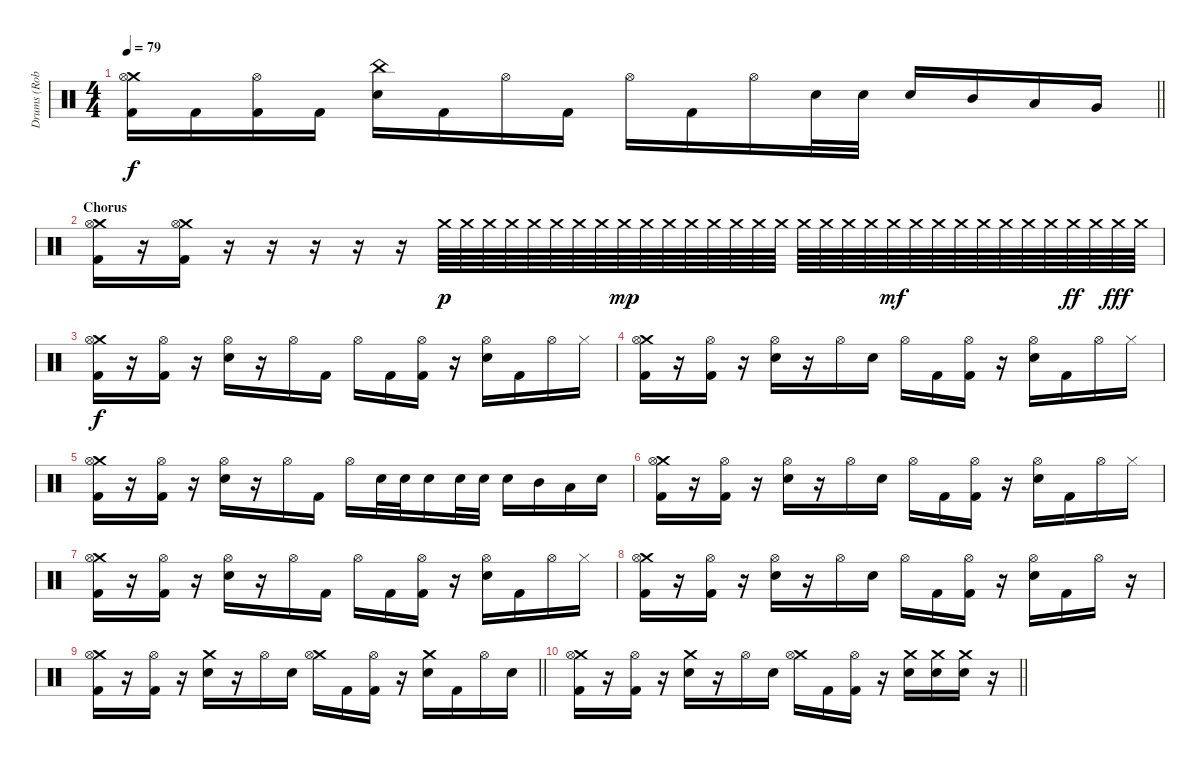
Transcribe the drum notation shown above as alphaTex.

\track ("Drums (Rob Bourdon)" "Drums (Rob") {instrument percussion}
\staff {score}
\articulation defaults
\ts (4 4)
\tempo 79
\clef neutral
\barLineRight lightlight
\ks c
("Crash medium (hit)" "Hi-Hat (open)" "Kick (hit) 2").16{dy f} "Kick (hit) 2".16 ("Hi-Hat (open)" "Kick (hit) 2").16 "Kick (hit) 2".16 ("China (hit)" "Electric Snare (hit)").16 "Kick (hit) 2".16 "Hi-Hat (open)".16 "Kick (hit) 2".16 "Hi-Hat (open)".16 "Kick (hit) 2".16 "Hi-Hat (open)".16 "Electric Snare (hit)".32 "Electric Snare (hit)".32 "Electric Snare (hit)".16 "Mid Tom (hit)".16 "Low Tom (hit)".16 "Very Low Tom (hit)".16 |
\section ("" "Chorus")
("Crash medium (hit)" "Hi-Hat (open)" "Kick (hit) 2").16 r.16 ("Crash medium (hit)" "Hi-Hat (open)" "Kick (hit) 2").16 r.16 r.16 r.16 r.16 r.16 "Crash medium (hit)".64{dy p} "Crash medium (hit)".64 "Crash medium (hit)".64 "Crash medium (hit)".64 "Crash medium (hit)".64 "Crash medium (hit)".64 "Crash medium (hit)".64 "Crash medium (hit)".64 "Crash medium (hit)".64{dy mp} "Crash medium (hit)".64 "Crash medium (hit)".64 "Crash medium (hit)".64 "Crash medium (hit)".64 "Crash medium (hit)".64 "Crash medium (hit)".64 "Crash medium (hit)".64 "Crash medium (hit)".64 "Crash medium (hit)".64 "Crash medium (hit)".64 "Crash medium (hit)".64 "Crash medium (hit)".64{dy mf} "Crash medium (hit)".64 "Crash medium (hit)".64 "Crash medium (hit)".64 "Crash medium (hit)".64 "Crash medium (hit)".64 "Crash medium (hit)".64 "Crash medium (hit)".64 "Crash medium (hit)".64{dy ff} "Crash medium (hit)".64 "Crash medium (hit)".64{dy fff} "Crash medium (hit)".64 |
("Crash medium (hit)" "Hi-Hat (open)" "Kick (hit) 2").16{dy f} r.16 ("Hi-Hat (open)" "Kick (hit) 2").16 r.16 ("Hi-Hat (open)" "Electric Snare (hit)").16 r.16 "Hi-Hat (open)".16 "Kick (hit) 2".16 "Hi-Hat (open)".16 "Kick (hit) 2".16 ("Hi-Hat (open)" "Kick (hit) 2").16 r.16 ("Hi-Hat (open)" "Electric Snare (hit)").16 "Kick (hit) 2".16 "Hi-Hat (open)".16 "Hi-Hat (closed)".16 |
("Crash medium (hit)" "Hi-Hat (open)" "Kick (hit) 2").16 r.16 ("Hi-Hat (open)" "Kick (hit) 2").16 r.16 ("Hi-Hat (open)" "Electric Snare (hit)").16 r.16 "Hi-Hat (open)".16 "Electric Snare (hit)".16 "Hi-Hat (open)".16 "Kick (hit) 2".16 ("Hi-Hat (open)" "Kick (hit) 2").16 r.16 ("Hi-Hat (open)" "Electric Snare (hit)").16 "Kick (hit) 2".16 "Hi-Hat (open)".16 "Hi-Hat (closed)".16 |
("Crash medium (hit)" "Hi-Hat (open)" "Kick (hit) 2").16 r.16 ("Hi-Hat (open)" "Kick (hit) 2").16 r.16 ("Hi-Hat (open)" "Electric Snare (hit)").16 r.16 "Hi-Hat (open)".16 "Kick (hit) 2".16 "Hi-Hat (open)".16 "Electric Snare (hit)".32 "Electric Snare (hit)".32 "Electric Snare (hit)".16 "Electric Snare (hit)".32 "Electric Snare (hit)".32 "Electric Snare (hit)".16 "Mid Tom (hit)".16 "Low Tom (hit)".16 "Electric Snare (hit)".16 |
("Crash medium (hit)" "Hi-Hat (open)" "Kick (hit) 2").16 r.16 ("Hi-Hat (open)" "Kick (hit) 2").16 r.16 ("Hi-Hat (open)" "Electric Snare (hit)").16 r.16 "Hi-Hat (open)".16 "Electric Snare (hit)".16 "Hi-Hat (open)".16 "Kick (hit) 2".16 ("Hi-Hat (open)" "Kick (hit) 2").16 r.16 ("Hi-Hat (open)" "Electric Snare (hit)").16 "Kick (hit) 2".16 "Hi-Hat (open)".16 "Hi-Hat (closed)".16 |
("Crash medium (hit)" "Hi-Hat (open)" "Kick (hit) 2").16 r.16 ("Hi-Hat (open)" "Kick (hit) 2").16 r.16 ("Hi-Hat (open)" "Electric Snare (hit)").16 r.16 "Hi-Hat (open)".16 "Kick (hit) 2".16 "Hi-Hat (open)".16 "Kick (hit) 2".16 ("Hi-Hat (open)" "Kick (hit) 2").16 r.16 ("Hi-Hat (open)" "Electric Snare (hit)").16 "Kick (hit) 2".16 "Hi-Hat (open)".16 "Hi-Hat (closed)".16 |
("Crash medium (hit)" "Hi-Hat (open)" "Kick (hit) 2").16 r.16 ("Hi-Hat (open)" "Kick (hit) 2").16 r.16 ("Hi-Hat (open)" "Electric Snare (hit)").16 r.16 "Hi-Hat (open)".16 "Electric Snare (hit)".16 "Hi-Hat (open)".16 "Kick (hit) 2".16 ("Hi-Hat (open)" "Kick (hit) 2").16 r.16 ("Hi-Hat (open)" "Electric Snare (hit)").16 "Kick (hit) 2".16 "Hi-Hat (open)".16 r.16 |
\barLineRight lightlight
("Crash medium (hit)" "Hi-Hat (open)" "Kick (hit) 2").16 r.16 ("Hi-Hat (open)" "Kick (hit) 2").16 r.16 ("Crash medium (hit)" "Electric Snare (hit)").16 r.16 "Hi-Hat (open)".16 "Electric Snare (hit)".16 ("Crash medium (hit)" "Hi-Hat (open)").16 "Kick (hit) 2".16 ("Hi-Hat (open)" "Kick (hit) 2").16 r.16 ("Crash medium (hit)" "Electric Snare (hit)").16 "Kick (hit) 2".16 "Hi-Hat (open)".16 "Electric Snare (hit)".16 |
\barLineRight lightlight
("Crash medium (hit)" "Hi-Hat (open)" "Kick (hit) 2").16 r.16 ("Hi-Hat (open)" "Kick (hit) 2").16 r.16 ("Crash medium (hit)" "Electric Snare (hit)").16 r.16 "Hi-Hat (open)".16 "Electric Snare (hit)".16 ("Crash medium (hit)" "Hi-Hat (open)").16 "Kick (hit) 2".16 ("Hi-Hat (open)" "Kick (hit) 2").16 r.16 ("Crash medium (hit)" "Electric Snare (hit)").16 ("Crash medium (hit)" "Electric Snare (hit)").16 ("Crash medium (hit)" "Electric Snare (hit)").16 r.16
